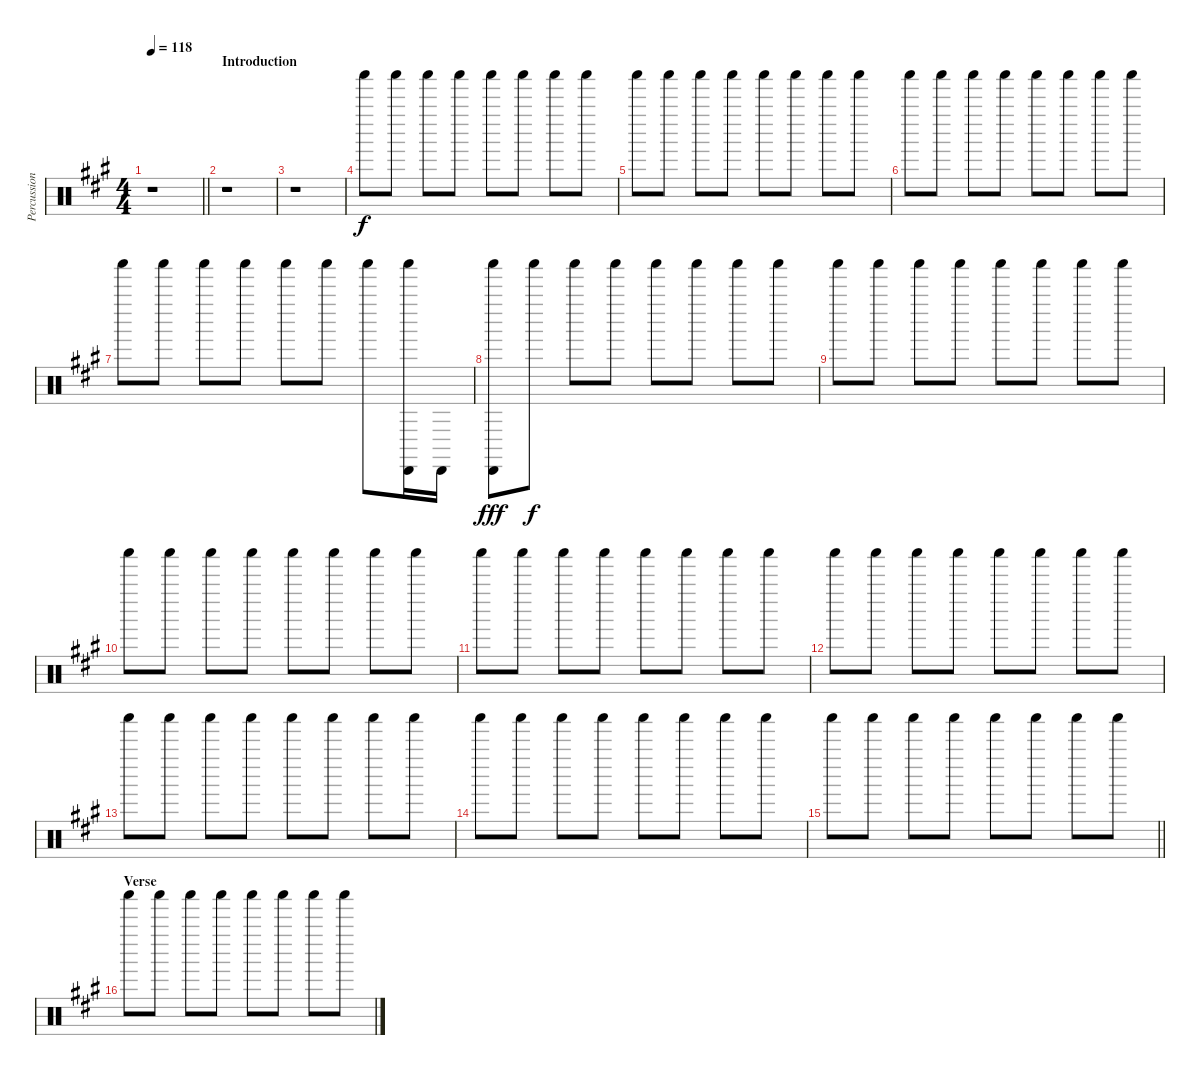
\track ("Percussions" "Percussion") {instrument percussion}
\staff {score}
\articulation defaults
\ts (4 4)
\tempo 118
\clef neutral
\barLineRight lightlight
\ks f#minor
r.1{dy f} |
\section ("" "Introduction")
r.1 |
r.1 |
"Shaker (hit)".8 "Shaker (hit)".8 "Shaker (hit)".8 "Shaker (hit)".8 "Shaker (hit)".8 "Shaker (hit)".8 "Shaker (hit)".8 "Shaker (hit)".8 |
"Shaker (hit)".8 "Shaker (hit)".8 "Shaker (hit)".8 "Shaker (hit)".8 "Shaker (hit)".8 "Shaker (hit)".8 "Shaker (hit)".8 "Shaker (hit)".8 |
"Shaker (hit)".8 "Shaker (hit)".8 "Shaker (hit)".8 "Shaker (hit)".8 "Shaker (hit)".8 "Shaker (hit)".8 "Shaker (hit)".8 "Shaker (hit)".8 |
"Shaker (hit)".8 "Shaker (hit)".8 "Shaker (hit)".8 "Shaker (hit)".8 "Shaker (hit)".8 "Shaker (hit)".8 "Shaker (hit)".8 ("Shaker (hit)" "Cabasa (hit)").16 "Cabasa (hit)".16 |
("Shaker (hit)" "Cabasa (hit)").8{dy fff} "Shaker (hit)".8{dy f} "Shaker (hit)".8 "Shaker (hit)".8 "Shaker (hit)".8 "Shaker (hit)".8 "Shaker (hit)".8 "Shaker (hit)".8 |
"Shaker (hit)".8 "Shaker (hit)".8 "Shaker (hit)".8 "Shaker (hit)".8 "Shaker (hit)".8 "Shaker (hit)".8 "Shaker (hit)".8 "Shaker (hit)".8 |
"Shaker (hit)".8 "Shaker (hit)".8 "Shaker (hit)".8 "Shaker (hit)".8 "Shaker (hit)".8 "Shaker (hit)".8 "Shaker (hit)".8 "Shaker (hit)".8 |
"Shaker (hit)".8 "Shaker (hit)".8 "Shaker (hit)".8 "Shaker (hit)".8 "Shaker (hit)".8 "Shaker (hit)".8 "Shaker (hit)".8 "Shaker (hit)".8 |
"Shaker (hit)".8 "Shaker (hit)".8 "Shaker (hit)".8 "Shaker (hit)".8 "Shaker (hit)".8 "Shaker (hit)".8 "Shaker (hit)".8 "Shaker (hit)".8 |
"Shaker (hit)".8 "Shaker (hit)".8 "Shaker (hit)".8 "Shaker (hit)".8 "Shaker (hit)".8 "Shaker (hit)".8 "Shaker (hit)".8 "Shaker (hit)".8 |
"Shaker (hit)".8 "Shaker (hit)".8 "Shaker (hit)".8 "Shaker (hit)".8 "Shaker (hit)".8 "Shaker (hit)".8 "Shaker (hit)".8 "Shaker (hit)".8 |
\barLineRight lightlight "Shaker (hit)".8 "Shaker (hit)".8 "Shaker (hit)".8 "Shaker (hit)".8 "Shaker (hit)".8 "Shaker (hit)".8 "Shaker (hit)".8 "Shaker (hit)".8
|
\section ("" "Verse")
"Shaker (hit)".8 "Shaker (hit)".8 "Shaker (hit)".8 "Shaker (hit)".8 "Shaker (hit)".8 "Shaker (hit)".8 "Shaker (hit)".8 "Shaker (hit)".8
